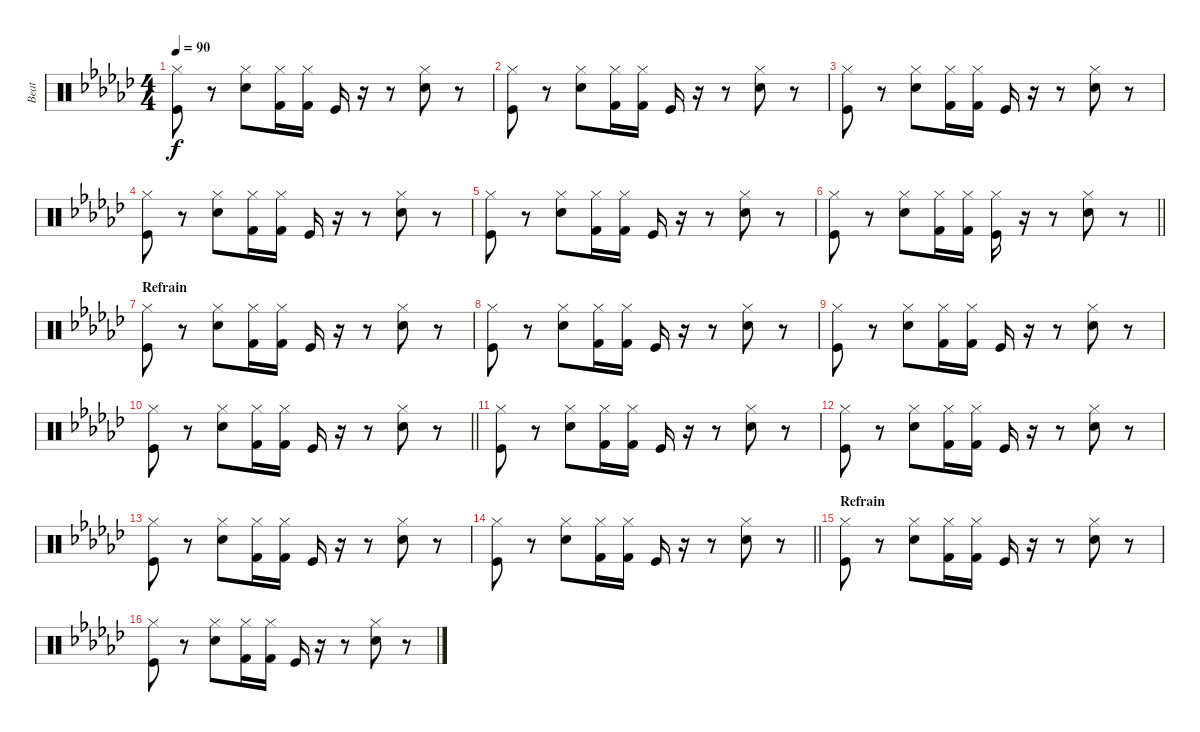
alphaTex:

\track ("Beat" "Beat") {instrument percussion}
\staff {score}
\articulation defaults
\ts (4 4)
\tempo 90
\clef neutral
\ks ebminor
("Hi-Hat (closed)" "Kick (hit)").8{dy f} r.8 ("Hi-Hat (closed)" "Electric Snare (hit)").8 ("Hi-Hat (closed)" "Kick (hit) 2").16 ("Hi-Hat (closed)" "Kick (hit) 2").16 "Kick (hit)".16 r.16 r.8 ("Hi-Hat (closed)" "Electric Snare (hit)").8 r.8 |
("Hi-Hat (closed)" "Kick (hit)").8 r.8 ("Hi-Hat (closed)" "Electric Snare (hit)").8 ("Hi-Hat (closed)" "Kick (hit) 2").16 ("Hi-Hat (closed)" "Kick (hit) 2").16 "Kick (hit)".16 r.16 r.8 ("Hi-Hat (closed)" "Electric Snare (hit)").8 r.8 |
("Hi-Hat (closed)" "Kick (hit)").8 r.8 ("Hi-Hat (closed)" "Electric Snare (hit)").8 ("Hi-Hat (closed)" "Kick (hit) 2").16 ("Hi-Hat (closed)" "Kick (hit) 2").16 "Kick (hit)".16 r.16 r.8 ("Hi-Hat (closed)" "Electric Snare (hit)").8 r.8 |
("Hi-Hat (closed)" "Kick (hit)").8 r.8 ("Hi-Hat (closed)" "Electric Snare (hit)").8 ("Hi-Hat (closed)" "Kick (hit) 2").16 ("Hi-Hat (closed)" "Kick (hit) 2").16 "Kick (hit)".16 r.16 r.8 ("Hi-Hat (closed)" "Electric Snare (hit)").8 r.8 |
("Hi-Hat (closed)" "Kick (hit)").8 r.8 ("Hi-Hat (closed)" "Electric Snare (hit)").8 ("Hi-Hat (closed)" "Kick (hit) 2").16 ("Hi-Hat (closed)" "Kick (hit) 2").16 "Kick (hit)".16 r.16 r.8 ("Hi-Hat (closed)" "Electric Snare (hit)").8 r.8 |
\barLineRight lightlight
("Hi-Hat (closed)" "Kick (hit)").8 r.8 ("Hi-Hat (closed)" "Electric Snare (hit)").8 ("Hi-Hat (closed)" "Kick (hit) 2").16 ("Hi-Hat (closed)" "Kick (hit) 2").16 ("Hi-Hat (closed)" "Kick (hit)").16 r.16 r.8 ("Hi-Hat (closed)" "Electric Snare (hit)").8 r.8 |
\section ("" "Refrain")
("Hi-Hat (closed)" "Kick (hit)").8 r.8 ("Hi-Hat (closed)" "Electric Snare (hit)").8 ("Hi-Hat (closed)" "Kick (hit) 2").16 ("Hi-Hat (closed)" "Kick (hit) 2").16 "Kick (hit)".16 r.16 r.8 ("Hi-Hat (closed)" "Electric Snare (hit)").8 r.8 |
("Hi-Hat (closed)" "Kick (hit)").8 r.8 ("Hi-Hat (closed)" "Electric Snare (hit)").8 ("Hi-Hat (closed)" "Kick (hit) 2").16 ("Hi-Hat (closed)" "Kick (hit) 2").16 "Kick (hit)".16 r.16 r.8 ("Hi-Hat (closed)" "Electric Snare (hit)").8 r.8 |
("Hi-Hat (closed)" "Kick (hit)").8 r.8 ("Hi-Hat (closed)" "Electric Snare (hit)").8 ("Hi-Hat (closed)" "Kick (hit) 2").16 ("Hi-Hat (closed)" "Kick (hit) 2").16 "Kick (hit)".16 r.16 r.8 ("Hi-Hat (closed)" "Electric Snare (hit)").8 r.8 |
\barLineRight lightlight
("Hi-Hat (closed)" "Kick (hit)").8 r.8 ("Hi-Hat (closed)" "Electric Snare (hit)").8 ("Hi-Hat (closed)" "Kick (hit) 2").16 ("Hi-Hat (closed)" "Kick (hit) 2").16 "Kick (hit)".16 r.16 r.8 ("Hi-Hat (closed)" "Electric Snare (hit)").8 r.8 |
("Hi-Hat (closed)" "Kick (hit)").8 r.8 ("Hi-Hat (closed)" "Electric Snare (hit)").8 ("Hi-Hat (closed)" "Kick (hit) 2").16 ("Hi-Hat (closed)" "Kick (hit) 2").16 "Kick (hit)".16 r.16 r.8 ("Hi-Hat (closed)" "Electric Snare (hit)").8 r.8 |
("Hi-Hat (closed)" "Kick (hit)").8 r.8 ("Hi-Hat (closed)" "Electric Snare (hit)").8 ("Hi-Hat (closed)" "Kick (hit) 2").16 ("Hi-Hat (closed)" "Kick (hit) 2").16 "Kick (hit)".16 r.16 r.8 ("Hi-Hat (closed)" "Electric Snare (hit)").8 r.8 |
("Hi-Hat (closed)" "Kick (hit)").8 r.8 ("Hi-Hat (closed)" "Electric Snare (hit)").8 ("Hi-Hat (closed)" "Kick (hit) 2").16 ("Hi-Hat (closed)" "Kick (hit) 2").16 "Kick (hit)".16 r.16 r.8 ("Hi-Hat (closed)" "Electric Snare (hit)").8 r.8 |
\barLineRight lightlight
("Hi-Hat (closed)" "Kick (hit)").8 r.8 ("Hi-Hat (closed)" "Electric Snare (hit)").8 ("Hi-Hat (closed)" "Kick (hit) 2").16 ("Hi-Hat (closed)" "Kick (hit) 2").16 "Kick (hit)".16 r.16 r.8 ("Hi-Hat (closed)" "Electric Snare (hit)").8 r.8 |
\section ("" "Refrain")
("Hi-Hat (closed)" "Kick (hit)").8 r.8 ("Hi-Hat (closed)" "Electric Snare (hit)").8 ("Hi-Hat (closed)" "Kick (hit) 2").16 ("Hi-Hat (closed)" "Kick (hit) 2").16 "Kick (hit)".16 r.16 r.8 ("Hi-Hat (closed)" "Electric Snare (hit)").8 r.8 |
("Hi-Hat (closed)" "Kick (hit)").8 r.8 ("Hi-Hat (closed)" "Electric Snare (hit)").8 ("Hi-Hat (closed)" "Kick (hit) 2").16 ("Hi-Hat (closed)" "Kick (hit) 2").16 "Kick (hit)".16 r.16 r.8 ("Hi-Hat (closed)" "Electric Snare (hit)").8 r.8
